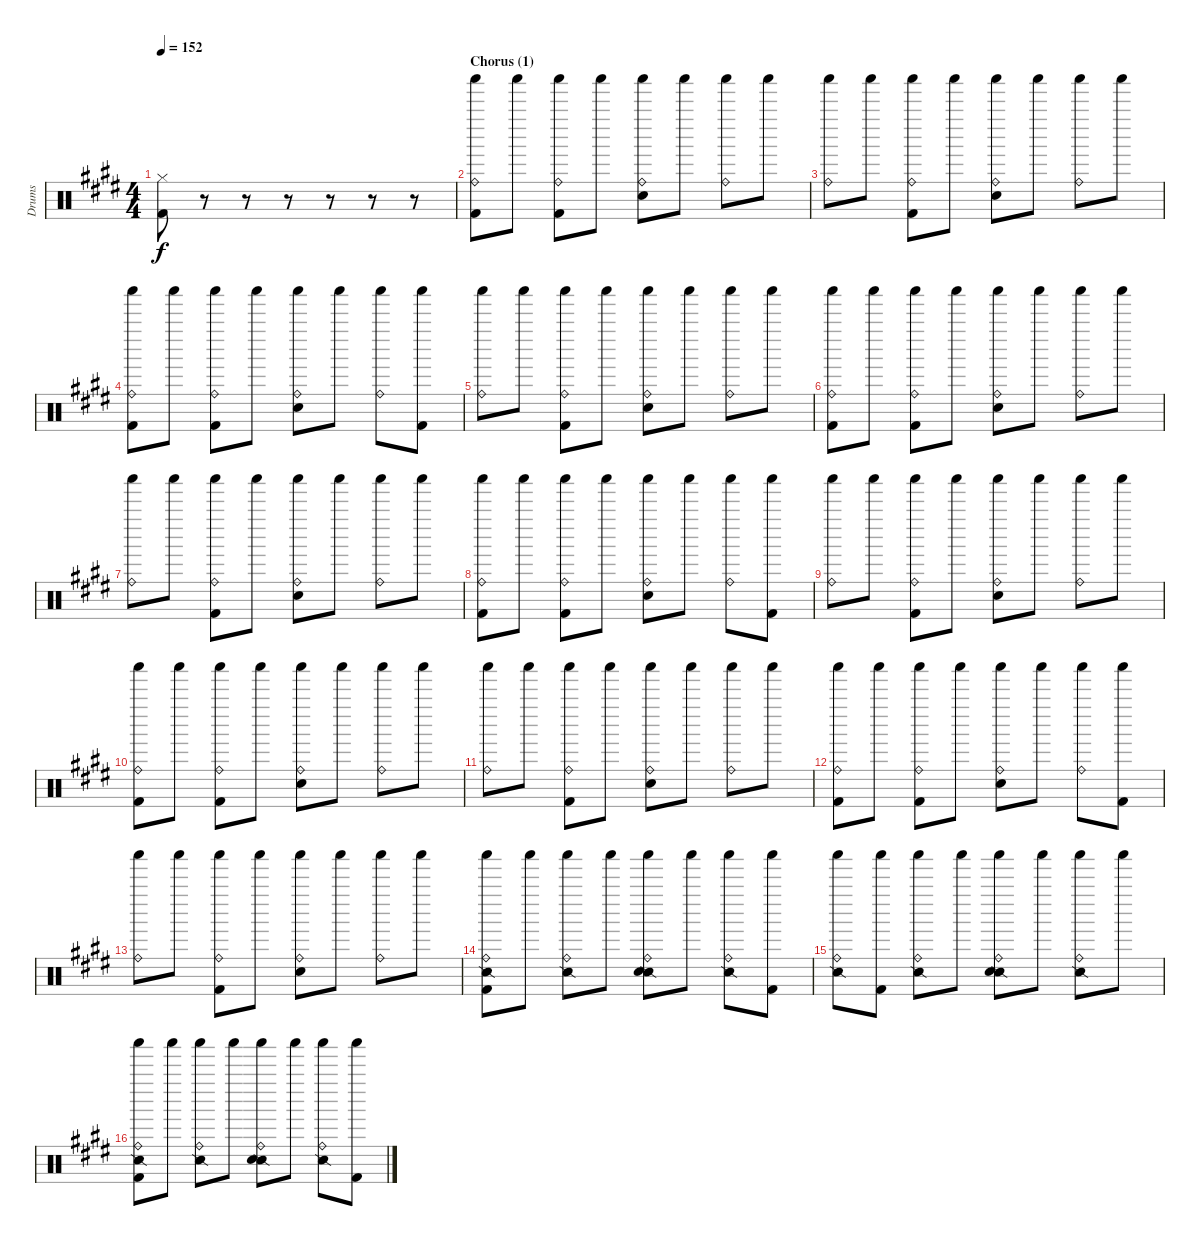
\track ("Drums" "Drums") {instrument percussion}
\staff {score}
\articulation defaults
\ts (4 4)
\tempo 152
\clef neutral
\ks c#minor
("Kick (hit) 2" "Hi-Hat (closed)").8{dy f} r.8 r.8 r.8 r.8 r.8 r.8 |
\section ("" "Chorus (1)")
("Ride (bell)" "Kick (hit) 2" "Shaker (hit)").8 "Shaker (hit)".8 ("Ride (bell)" "Kick (hit) 2" "Shaker (hit)").8 "Shaker (hit)".8 ("Ride (bell)" "Snare (hit) 2" "Shaker (hit)").8 "Shaker (hit)".8 ("Ride (bell)" "Shaker (hit)").8 "Shaker (hit)".8 |
("Ride (bell)" "Shaker (hit)").8 "Shaker (hit)".8 ("Ride (bell)" "Kick (hit) 2" "Shaker (hit)").8 "Shaker (hit)".8 ("Ride (bell)" "Snare (hit) 2" "Shaker (hit)").8 "Shaker (hit)".8 ("Ride (bell)" "Shaker (hit)").8 "Shaker (hit)".8 |
("Ride (bell)" "Kick (hit) 2" "Shaker (hit)").8 "Shaker (hit)".8 ("Ride (bell)" "Kick (hit) 2" "Shaker (hit)").8 "Shaker (hit)".8 ("Ride (bell)" "Snare (hit) 2" "Shaker (hit)").8 "Shaker (hit)".8 ("Ride (bell)" "Shaker (hit)").8 ("Kick (hit) 2" "Shaker (hit)").8 |
("Ride (bell)" "Shaker (hit)").8 "Shaker (hit)".8 ("Ride (bell)" "Kick (hit) 2" "Shaker (hit)").8 "Shaker (hit)".8 ("Ride (bell)" "Snare (hit) 2" "Shaker (hit)").8 "Shaker (hit)".8 ("Ride (bell)" "Shaker (hit)").8 "Shaker (hit)".8 |
("Ride (bell)" "Kick (hit) 2" "Shaker (hit)").8 "Shaker (hit)".8 ("Ride (bell)" "Kick (hit) 2" "Shaker (hit)").8 "Shaker (hit)".8 ("Ride (bell)" "Snare (hit) 2" "Shaker (hit)").8 "Shaker (hit)".8 ("Ride (bell)" "Shaker (hit)").8 "Shaker (hit)".8 |
("Ride (bell)" "Shaker (hit)").8 "Shaker (hit)".8 ("Ride (bell)" "Kick (hit) 2" "Shaker (hit)").8 "Shaker (hit)".8 ("Ride (bell)" "Snare (hit) 2" "Shaker (hit)").8 "Shaker (hit)".8 ("Ride (bell)" "Shaker (hit)").8 "Shaker (hit)".8 |
("Ride (bell)" "Kick (hit) 2" "Shaker (hit)").8 "Shaker (hit)".8 ("Ride (bell)" "Kick (hit) 2" "Shaker (hit)").8 "Shaker (hit)".8 ("Ride (bell)" "Snare (hit) 2" "Shaker (hit)").8 "Shaker (hit)".8 ("Ride (bell)" "Shaker (hit)").8 ("Kick (hit) 2" "Shaker (hit)").8 |
("Ride (bell)" "Shaker (hit)").8 "Shaker (hit)".8 ("Ride (bell)" "Kick (hit) 2" "Shaker (hit)").8 "Shaker (hit)".8 ("Ride (bell)" "Snare (hit) 2" "Shaker (hit)").8 "Shaker (hit)".8 ("Ride (bell)" "Shaker (hit)").8 "Shaker (hit)".8 |
("Ride (bell)" "Kick (hit) 2" "Shaker (hit)").8 "Shaker (hit)".8 ("Ride (bell)" "Kick (hit) 2" "Shaker (hit)").8 "Shaker (hit)".8 ("Ride (bell)" "Snare (hit) 2" "Shaker (hit)").8 "Shaker (hit)".8 ("Ride (bell)" "Shaker (hit)").8 "Shaker (hit)".8 |
("Ride (bell)" "Shaker (hit)").8 "Shaker (hit)".8 ("Ride (bell)" "Kick (hit) 2" "Shaker (hit)").8 "Shaker (hit)".8 ("Ride (bell)" "Snare (hit) 2" "Shaker (hit)").8 "Shaker (hit)".8 ("Ride (bell)" "Shaker (hit)").8 "Shaker (hit)".8 |
("Ride (bell)" "Kick (hit) 2" "Shaker (hit)").8 "Shaker (hit)".8 ("Ride (bell)" "Kick (hit) 2" "Shaker (hit)").8 "Shaker (hit)".8 ("Ride (bell)" "Snare (hit) 2" "Shaker (hit)").8 "Shaker (hit)".8 ("Ride (bell)" "Shaker (hit)").8 ("Kick (hit) 2" "Shaker (hit)").8 |
("Ride (bell)" "Shaker (hit)").8 "Shaker (hit)".8 ("Ride (bell)" "Kick (hit) 2" "Shaker (hit)").8 "Shaker (hit)".8 ("Ride (bell)" "Snare (hit) 2" "Shaker (hit)").8 "Shaker (hit)".8 ("Ride (bell)" "Shaker (hit)").8 "Shaker (hit)".8 |
("Snare (side stick) 2" "Ride (bell)" "Kick (hit) 2" "Shaker (hit)").8 "Shaker (hit)".8 ("Snare (side stick) 2" "Ride (bell)" "Shaker (hit)").8 "Shaker (hit)".8 ("Snare (side stick) 2" "Ride (bell)" "Snare (hit) 2" "Shaker (hit)").8 "Shaker (hit)".8 ("Snare (side stick) 2" "Ride (bell)" "Shaker (hit)").8 ("Kick (hit) 2" "Shaker (hit)").8 |
("Snare (side stick) 2" "Ride (bell)" "Shaker (hit)").8 ("Shaker (hit)" "Kick (hit) 2").8 ("Snare (side stick) 2" "Ride (bell)" "Shaker (hit)").8 "Shaker (hit)".8 ("Snare (side stick) 2" "Ride (bell)" "Snare (hit) 2" "Shaker (hit)").8 "Shaker (hit)".8 ("Snare (side stick) 2" "Ride (bell)" "Shaker (hit)").8 "Shaker (hit)".8 |
("Snare (side stick) 2" "Ride (bell)" "Kick (hit) 2" "Shaker (hit)").8 "Shaker (hit)".8 ("Snare (side stick) 2" "Ride (bell)" "Shaker (hit)").8 "Shaker (hit)".8 ("Snare (side stick) 2" "Ride (bell)" "Snare (hit) 2" "Shaker (hit)").8 "Shaker (hit)".8 ("Snare (side stick) 2" "Ride (bell)" "Shaker (hit)").8 ("Kick (hit) 2" "Shaker (hit)").8
